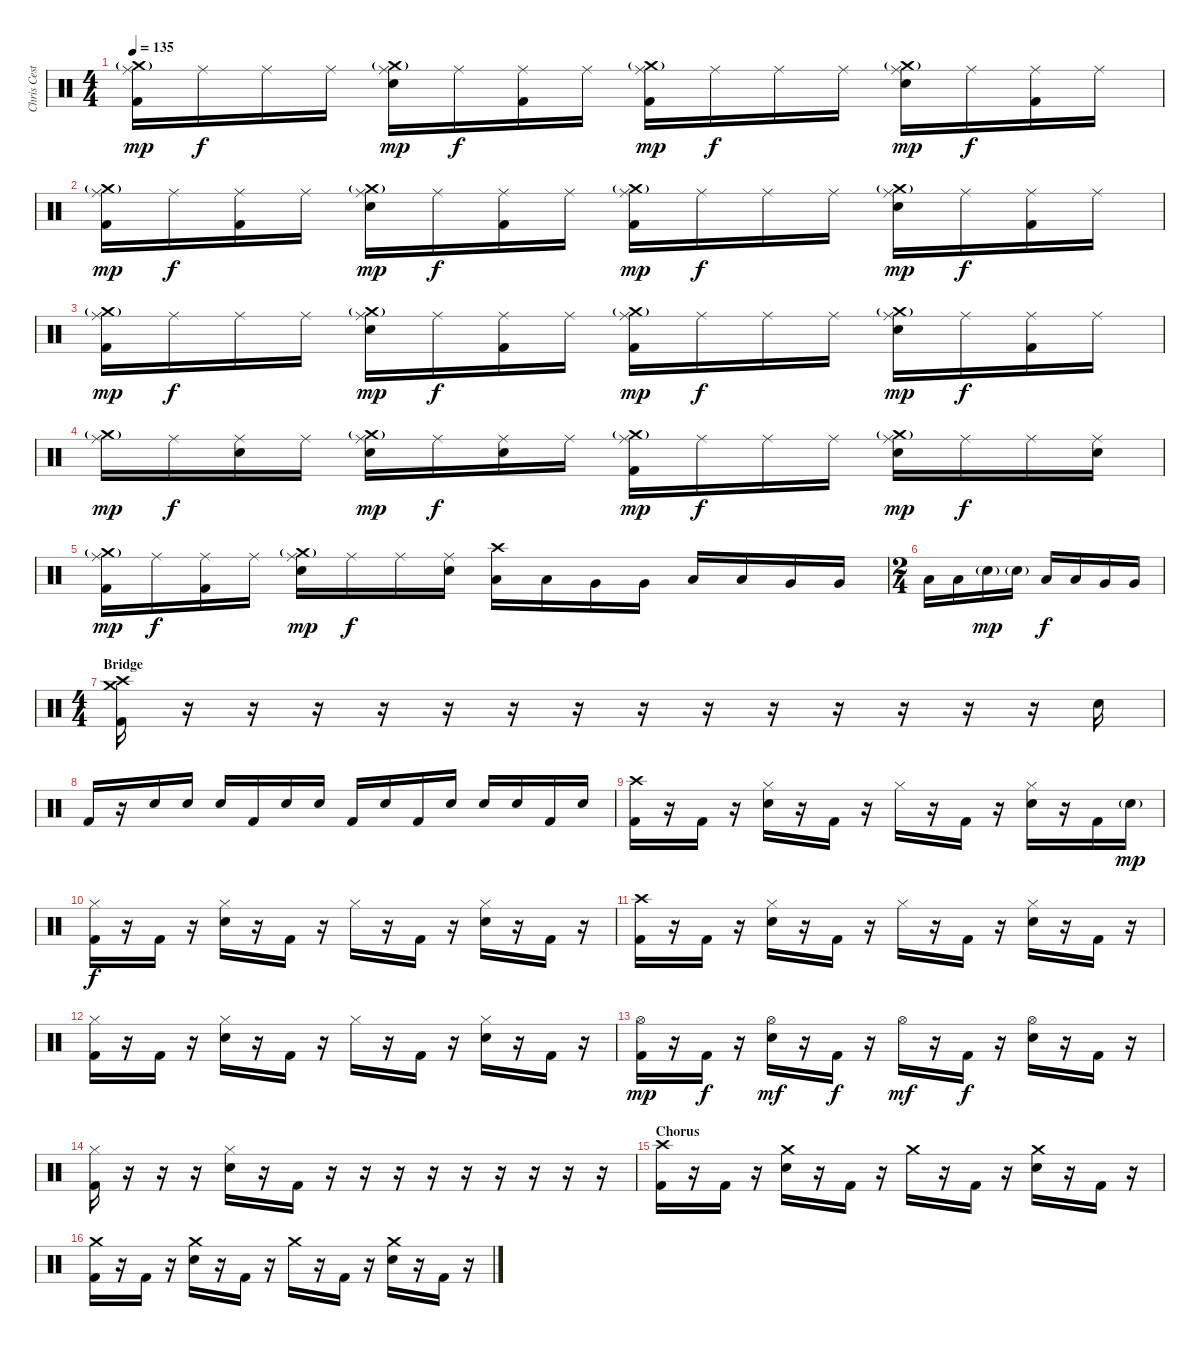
\track ("Chris Cester - Drums" "Chris Cest") {instrument percussion}
\staff {score}
\articulation defaults
\ts (4 4)
\tempo 135
\clef neutral
\ks c
("Ride (middle)" "Crash medium (hit)"{g} "Kick (hit) 2").16{dy mp} "Ride (middle)".16{dy f} "Ride (middle)".16 "Ride (middle)".16 ("Ride (middle)" "Crash medium (hit)"{g} "Electric Snare (hit)").16{dy mp} "Ride (middle)".16{dy f} ("Ride (middle)" "Kick (hit) 2").16 "Ride (middle)".16 ("Ride (middle)" "Crash medium (hit)"{g} "Kick (hit) 2").16{dy mp} "Ride (middle)".16{dy f} "Ride (middle)".16 "Ride (middle)".16 ("Ride (middle)" "Crash medium (hit)"{g} "Electric Snare (hit)").16{dy mp} "Ride (middle)".16{dy f} ("Ride (middle)" "Kick (hit) 2").16 "Ride (middle)".16 |
("Ride (middle)" "Crash medium (hit)"{g} "Kick (hit) 2").16{dy mp} "Ride (middle)".16{dy f} ("Ride (middle)" "Kick (hit) 2").16 "Ride (middle)".16 ("Ride (middle)" "Crash medium (hit)"{g} "Electric Snare (hit)").16{dy mp} "Ride (middle)".16{dy f} ("Ride (middle)" "Kick (hit) 2").16 "Ride (middle)".16 ("Ride (middle)" "Crash medium (hit)"{g} "Kick (hit) 2").16{dy mp} "Ride (middle)".16{dy f} "Ride (middle)".16 "Ride (middle)".16 ("Ride (middle)" "Crash medium (hit)"{g} "Electric Snare (hit)").16{dy mp} "Ride (middle)".16{dy f} ("Ride (middle)" "Kick (hit) 2").16 "Ride (middle)".16 |
("Ride (middle)" "Crash medium (hit)"{g} "Kick (hit) 2").16{dy mp} "Ride (middle)".16{dy f} "Ride (middle)".16 "Ride (middle)".16 ("Ride (middle)" "Crash medium (hit)"{g} "Electric Snare (hit)").16{dy mp} "Ride (middle)".16{dy f} ("Ride (middle)" "Kick (hit) 2").16 "Ride (middle)".16 ("Ride (middle)" "Crash medium (hit)"{g} "Kick (hit) 2").16{dy mp} "Ride (middle)".16{dy f} "Ride (middle)".16 "Ride (middle)".16 ("Ride (middle)" "Crash medium (hit)"{g} "Electric Snare (hit)").16{dy mp} "Ride (middle)".16{dy f} ("Ride (middle)" "Kick (hit) 2").16 "Ride (middle)".16 |
("Ride (middle)" "Crash medium (hit)"{g}).16{dy mp} "Ride (middle)".16{dy f} ("Ride (middle)" "Electric Snare (hit)").16 "Ride (middle)".16 ("Ride (middle)" "Crash medium (hit)"{g} "Electric Snare (hit)").16{dy mp} "Ride (middle)".16{dy f} ("Ride (middle)" "Electric Snare (hit)").16 "Ride (middle)".16 ("Ride (middle)" "Crash medium (hit)"{g} "Kick (hit) 2").16{dy mp} "Ride (middle)".16{dy f} "Ride (middle)".16 "Ride (middle)".16 ("Ride (middle)" "Crash medium (hit)"{g} "Electric Snare (hit)").16{dy mp} "Ride (middle)".16{dy f} "Ride (middle)".16 ("Ride (middle)" "Electric Snare (hit)").16 |
("Ride (middle)" "Crash medium (hit)"{g} "Kick (hit) 2").16{dy mp} "Ride (middle)".16{dy f} ("Ride (middle)" "Kick (hit) 2").16 "Ride (middle)".16 ("Ride (middle)" "Crash medium (hit)"{g} "Electric Snare (hit)").16{dy mp} "Ride (middle)".16{dy f} "Ride (middle)".16 ("Ride (middle)" "Electric Snare (hit)").16 ("Crash high (hit)" "Low Tom (hit)").16 "Low Tom (hit)".16 "Very Low Tom (hit)".16 "Very Low Tom (hit)".16 "Low Tom (hit)".16 "Low Tom (hit)".16 "Very Low Tom (hit)".16 "Very Low Tom (hit)".16 |
\ts (2 4)
"Low Tom (hit)".16 "Low Tom (hit)".16 "Electric Snare (hit)"{g}.16{dy mp} "Electric Snare (hit)"{g}.16 "Low Tom (hit)".16{dy f} "Low Tom (hit)".16 "Very Low Tom (hit)".16 "Very Low Tom (hit)".16 |
\ts (4 4)
\section ("" "Bridge")
("Crash medium (hit)" "Crash high (hit)" "Kick (hit) 2").16 r.16 r.16 r.16 r.16 r.16 r.16 r.16 r.16 r.16 r.16 r.16 r.16 r.16 r.16 "Electric Snare (hit)".16 |
"Kick (hit) 2".16 r.16 "Electric Snare (hit)".16 "Electric Snare (hit)".16 "Electric Snare (hit)".16 "Kick (hit) 2".16 "Electric Snare (hit)".16 "Electric Snare (hit)".16 "Kick (hit) 2".16 "Electric Snare (hit)".16 "Kick (hit) 2".16 "Electric Snare (hit)".16 "Electric Snare (hit)".16 "Electric Snare (hit)".16 "Kick (hit) 2".16 "Electric Snare (hit)".16 |
("Crash high (hit)" "Kick (hit) 2").16 r.16 "Kick (hit) 2".16 r.16 ("Hi-Hat (closed)" "Electric Snare (hit)").16 r.16 "Kick (hit) 2".16 r.16 "Hi-Hat (closed)".16 r.16 "Kick (hit) 2".16 r.16 ("Hi-Hat (closed)" "Electric Snare (hit)").16 r.16 "Kick (hit) 2".16 "Electric Snare (hit)"{g}.16{dy mp} |
("Hi-Hat (closed)" "Kick (hit) 2").16{dy f} r.16 "Kick (hit) 2".16 r.16 ("Hi-Hat (closed)" "Electric Snare (hit)").16 r.16 "Kick (hit) 2".16 r.16 "Hi-Hat (closed)".16 r.16 "Kick (hit) 2".16 r.16 ("Hi-Hat (closed)" "Electric Snare (hit)").16 r.16 "Kick (hit) 2".16 r.16 |
("Crash high (hit)" "Kick (hit) 2").16 r.16 "Kick (hit) 2".16 r.16 ("Hi-Hat (closed)" "Electric Snare (hit)").16 r.16 "Kick (hit) 2".16 r.16 "Hi-Hat (closed)".16 r.16 "Kick (hit) 2".16 r.16 ("Hi-Hat (closed)" "Electric Snare (hit)").16 r.16 "Kick (hit) 2".16 r.16 |
("Hi-Hat (closed)" "Kick (hit) 2").16 r.16 "Kick (hit) 2".16 r.16 ("Hi-Hat (closed)" "Electric Snare (hit)").16 r.16 "Kick (hit) 2".16 r.16 "Hi-Hat (closed)".16 r.16 "Kick (hit) 2".16 r.16 ("Hi-Hat (closed)" "Electric Snare (hit)").16 r.16 "Kick (hit) 2".16 r.16 |
("Hi-Hat (open)" "Kick (hit) 2").16{dy mp} r.16 "Kick (hit) 2".16{dy f} r.16 ("Hi-Hat (open)" "Electric Snare (hit)").16{dy mf} r.16 "Kick (hit) 2".16{dy f} r.16 "Hi-Hat (open)".16{dy mf} r.16 "Kick (hit) 2".16{dy f} r.16 ("Hi-Hat (open)" "Electric Snare (hit)").16 r.16 "Kick (hit) 2".16 r.16 |
("Hi-Hat (closed)" "Kick (hit) 2").16 r.16 r.16 r.16 ("Hi-Hat (closed)" "Electric Snare (hit)").16 r.16 "Kick (hit) 2".16 r.16 r.16 r.16 r.16 r.16 r.16 r.16 r.16 r.16 |
\section ("" "Chorus")
("Crash high (hit)" "Kick (hit) 2").16 r.16 "Kick (hit) 2".16 r.16 ("Crash medium (hit)" "Electric Snare (hit)").16 r.16 "Kick (hit) 2".16 r.16 "Crash medium (hit)".16 r.16 "Kick (hit) 2".16 r.16 ("Crash medium (hit)" "Electric Snare (hit)").16 r.16 "Kick (hit) 2".16 r.16 |
("Crash medium (hit)" "Kick (hit) 2").16 r.16 "Kick (hit) 2".16 r.16 ("Crash medium (hit)" "Electric Snare (hit)").16 r.16 "Kick (hit) 2".16 r.16 "Crash medium (hit)".16 r.16 "Kick (hit) 2".16 r.16 ("Crash medium (hit)" "Electric Snare (hit)").16 r.16 "Kick (hit) 2".16 r.16
